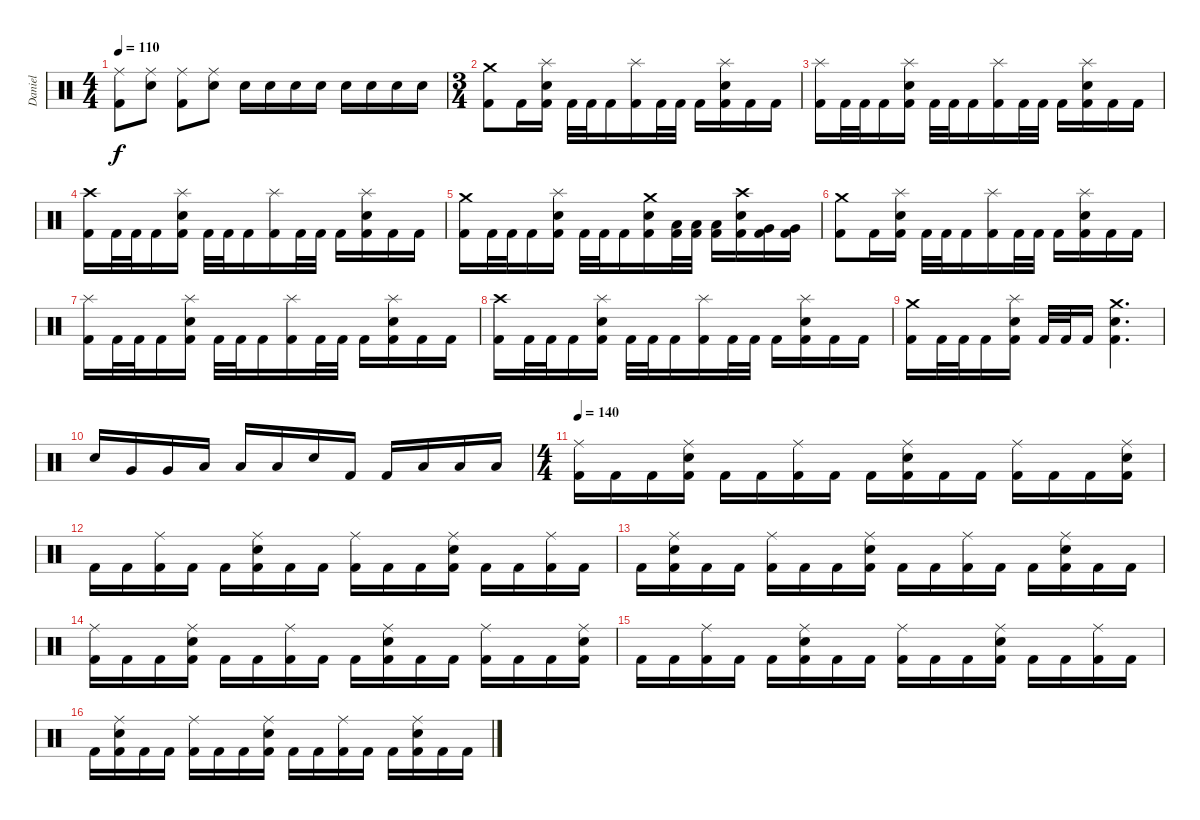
\track ("Daniel" "Daniel") {instrument percussion}
\staff {score}
\articulation defaults
\ts (4 4)
\tempo 110
\clef neutral
\ks c
("Ride (middle)" "Kick (hit) 2").8{dy f} ("Ride (middle)" "Electric Snare (hit)").8 ("Ride (middle)" "Kick (hit) 2").8 ("Ride (middle)" "Electric Snare (hit)").8 "Electric Snare (hit)".16 "Electric Snare (hit)".16 "Electric Snare (hit)".16 "Electric Snare (hit)".16 "Electric Snare (hit)".16 "Electric Snare (hit)".16 "Electric Snare (hit)".16 "Electric Snare (hit)".16 |
\ts (3 4)
("Kick (hit) 2" "Crash medium (hit)").8 "Kick (hit) 2".16 ("Kick (hit) 2" "Electric Snare (hit)" "Splash (hit)").16 "Kick (hit) 2".32 "Kick (hit) 2".32 "Kick (hit) 2".16 ("Kick (hit) 2" "Splash (hit)").16 "Kick (hit) 2".32 "Kick (hit) 2".32 "Kick (hit) 2".16 ("Kick (hit) 2" "Electric Snare (hit)" "Splash (hit)").16 "Kick (hit) 2".16 "Kick (hit) 2".16 |
("Kick (hit) 2" "Splash (hit)").16 "Kick (hit) 2".32 "Kick (hit) 2".32 "Kick (hit) 2".16 ("Kick (hit) 2" "Electric Snare (hit)" "Splash (hit)").16 "Kick (hit) 2".32 "Kick (hit) 2".32 "Kick (hit) 2".16 ("Kick (hit) 2" "Splash (hit)").16 "Kick (hit) 2".32 "Kick (hit) 2".32 "Kick (hit) 2".16 ("Kick (hit) 2" "Electric Snare (hit)" "Splash (hit)").16 "Kick (hit) 2".16 "Kick (hit) 2".16 |
("Kick (hit) 2" "Crash high (hit)").16 "Kick (hit) 2".32 "Kick (hit) 2".32 "Kick (hit) 2".16 ("Kick (hit) 2" "Electric Snare (hit)" "Splash (hit)").16 "Kick (hit) 2".32 "Kick (hit) 2".32 "Kick (hit) 2".16 ("Kick (hit) 2" "Splash (hit)").16 "Kick (hit) 2".32 "Kick (hit) 2".32 "Kick (hit) 2".16 ("Kick (hit) 2" "Electric Snare (hit)" "Splash (hit)").16 "Kick (hit) 2".16 "Kick (hit) 2".16 |
("Kick (hit) 2" "Crash medium (hit)").16 "Kick (hit) 2".32 "Kick (hit) 2".32 "Kick (hit) 2".16 ("Kick (hit) 2" "Electric Snare (hit)" "Splash (hit)").16 "Kick (hit) 2".32 "Kick (hit) 2".32 "Kick (hit) 2".16 ("Kick (hit) 2" "Electric Snare (hit)" "Crash medium (hit)").16 ("Kick (hit) 2" "Low Tom (hit)").32 ("Kick (hit) 2" "Low Tom (hit)").32 ("Kick (hit) 2" "Low Tom (hit)").16 ("Kick (hit) 2" "Electric Snare (hit)" "Crash high (hit)").16 ("Kick (hit) 2" "Very Low Tom (hit)").16 ("Kick (hit) 2" "Very Low Tom (hit)").16 |
("Kick (hit) 2" "Crash medium (hit)").8 "Kick (hit) 2".16 ("Kick (hit) 2" "Electric Snare (hit)" "Splash (hit)").16 "Kick (hit) 2".32 "Kick (hit) 2".32 "Kick (hit) 2".16 ("Kick (hit) 2" "Splash (hit)").16 "Kick (hit) 2".32 "Kick (hit) 2".32 "Kick (hit) 2".16 ("Kick (hit) 2" "Electric Snare (hit)" "Splash (hit)").16 "Kick (hit) 2".16 "Kick (hit) 2".16 |
("Kick (hit) 2" "Splash (hit)").16 "Kick (hit) 2".32 "Kick (hit) 2".32 "Kick (hit) 2".16 ("Kick (hit) 2" "Electric Snare (hit)" "Splash (hit)").16 "Kick (hit) 2".32 "Kick (hit) 2".32 "Kick (hit) 2".16 ("Kick (hit) 2" "Splash (hit)").16 "Kick (hit) 2".32 "Kick (hit) 2".32 "Kick (hit) 2".16 ("Kick (hit) 2" "Electric Snare (hit)" "Splash (hit)").16 "Kick (hit) 2".16 "Kick (hit) 2".16 |
("Kick (hit) 2" "Crash high (hit)").16 "Kick (hit) 2".32 "Kick (hit) 2".32 "Kick (hit) 2".16 ("Kick (hit) 2" "Electric Snare (hit)" "Splash (hit)").16 "Kick (hit) 2".32 "Kick (hit) 2".32 "Kick (hit) 2".16 ("Kick (hit) 2" "Splash (hit)").16 "Kick (hit) 2".32 "Kick (hit) 2".32 "Kick (hit) 2".16 ("Kick (hit) 2" "Electric Snare (hit)" "Splash (hit)").16 "Kick (hit) 2".16 "Kick (hit) 2".16 |
("Kick (hit) 2" "Crash medium (hit)").16 "Kick (hit) 2".32 "Kick (hit) 2".32 "Kick (hit) 2".16 ("Kick (hit) 2" "Electric Snare (hit)" "Splash (hit)").16 "Kick (hit) 2".32 "Kick (hit) 2".32 "Kick (hit) 2".16 ("Kick (hit) 2" "Electric Snare (hit)" "Crash medium (hit)").4{d} |
"Electric Snare (hit)".16 "Very Low Tom (hit)".16 "Very Low Tom (hit)".16 "Low Tom (hit)".16 "Low Tom (hit)".16 "Low Tom (hit)".16 "Electric Snare (hit)".16 "Kick (hit) 2".16 "Kick (hit) 2".16 "Low Floor Tom (hit)".16 "Low Floor Tom (hit)".16 "Low Floor Tom (hit)".16 |
\ts (4 4)
\tempo 140
("Kick (hit) 2" "Ride (middle)").16 "Kick (hit) 2".16 "Kick (hit) 2".16 ("Kick (hit) 2" "Electric Snare (hit)" "Ride (middle)").16 "Kick (hit) 2".16 "Kick (hit) 2".16 ("Kick (hit) 2" "Ride (middle)").16 "Kick (hit) 2".16 "Kick (hit) 2".16 ("Kick (hit) 2" "Electric Snare (hit)" "Ride (middle)").16 "Kick (hit) 2".16 "Kick (hit) 2".16 ("Kick (hit) 2" "Ride (middle)").16 "Kick (hit) 2".16 "Kick (hit) 2".16 ("Kick (hit) 2" "Electric Snare (hit)" "Ride (middle)").16 |
"Kick (hit) 2".16 "Kick (hit) 2".16 ("Kick (hit) 2" "Ride (middle)").16 "Kick (hit) 2".16 "Kick (hit) 2".16 ("Kick (hit) 2" "Electric Snare (hit)" "Ride (middle)").16 "Kick (hit) 2".16 "Kick (hit) 2".16 ("Kick (hit) 2" "Ride (middle)").16 "Kick (hit) 2".16 "Kick (hit) 2".16 ("Kick (hit) 2" "Electric Snare (hit)" "Ride (middle)").16 "Kick (hit) 2".16 "Kick (hit) 2".16 ("Kick (hit) 2" "Ride (middle)").16 "Kick (hit) 2".16 |
"Kick (hit) 2".16 ("Kick (hit) 2" "Electric Snare (hit)" "Ride (middle)").16 "Kick (hit) 2".16 "Kick (hit) 2".16 ("Kick (hit) 2" "Ride (middle)").16 "Kick (hit) 2".16 "Kick (hit) 2".16 ("Kick (hit) 2" "Electric Snare (hit)" "Ride (middle)").16 "Kick (hit) 2".16 "Kick (hit) 2".16 ("Kick (hit) 2" "Ride (middle)").16 "Kick (hit) 2".16 "Kick (hit) 2".16 ("Kick (hit) 2" "Electric Snare (hit)" "Ride (middle)").16 "Kick (hit) 2".16 "Kick (hit) 2".16 |
("Kick (hit) 2" "Ride (middle)").16 "Kick (hit) 2".16 "Kick (hit) 2".16 ("Kick (hit) 2" "Electric Snare (hit)" "Ride (middle)").16 "Kick (hit) 2".16 "Kick (hit) 2".16 ("Kick (hit) 2" "Ride (middle)").16 "Kick (hit) 2".16 "Kick (hit) 2".16 ("Kick (hit) 2" "Electric Snare (hit)" "Ride (middle)").16 "Kick (hit) 2".16 "Kick (hit) 2".16 ("Kick (hit) 2" "Ride (middle)").16 "Kick (hit) 2".16 "Kick (hit) 2".16 ("Kick (hit) 2" "Electric Snare (hit)" "Ride (middle)").16 |
"Kick (hit) 2".16 "Kick (hit) 2".16 ("Kick (hit) 2" "Ride (middle)").16 "Kick (hit) 2".16 "Kick (hit) 2".16 ("Kick (hit) 2" "Electric Snare (hit)" "Ride (middle)").16 "Kick (hit) 2".16 "Kick (hit) 2".16 ("Kick (hit) 2" "Ride (middle)").16 "Kick (hit) 2".16 "Kick (hit) 2".16 ("Kick (hit) 2" "Electric Snare (hit)" "Ride (middle)").16 "Kick (hit) 2".16 "Kick (hit) 2".16 ("Kick (hit) 2" "Ride (middle)").16 "Kick (hit) 2".16 |
"Kick (hit) 2".16 ("Kick (hit) 2" "Electric Snare (hit)" "Ride (middle)").16 "Kick (hit) 2".16 "Kick (hit) 2".16 ("Kick (hit) 2" "Ride (middle)").16 "Kick (hit) 2".16 "Kick (hit) 2".16 ("Kick (hit) 2" "Electric Snare (hit)" "Ride (middle)").16 "Kick (hit) 2".16 "Kick (hit) 2".16 ("Kick (hit) 2" "Ride (middle)").16 "Kick (hit) 2".16 "Kick (hit) 2".16 ("Kick (hit) 2" "Electric Snare (hit)" "Ride (middle)").16 "Kick (hit) 2".16 "Kick (hit) 2".16
